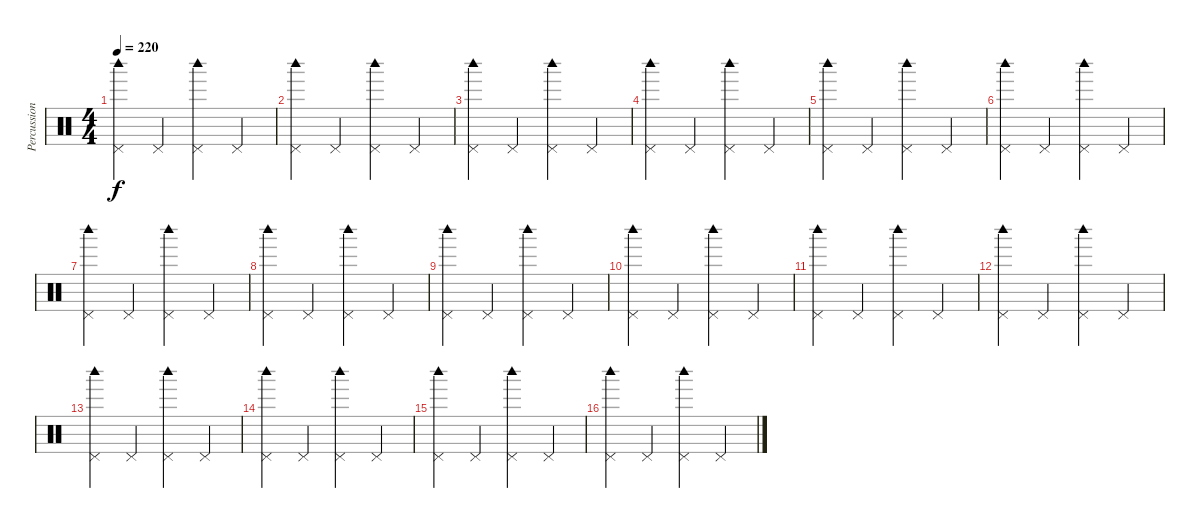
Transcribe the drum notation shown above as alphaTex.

\track ("Percussion" "Percussion") {instrument percussion}
\staff {score}
\articulation defaults
\ts (4 4)
\tempo 220
\clef neutral
\ks c
("Pedal Hi-Hat (hit)" "Woodblock high (hit)").4{dy f} "Pedal Hi-Hat (hit)".4 ("Pedal Hi-Hat (hit)" "Woodblock high (hit)").4 "Pedal Hi-Hat (hit)".4 |
("Pedal Hi-Hat (hit)" "Woodblock high (hit)").4 "Pedal Hi-Hat (hit)".4 ("Pedal Hi-Hat (hit)" "Woodblock high (hit)").4 "Pedal Hi-Hat (hit)".4 |
("Pedal Hi-Hat (hit)" "Woodblock high (hit)").4 "Pedal Hi-Hat (hit)".4 ("Pedal Hi-Hat (hit)" "Woodblock high (hit)").4 "Pedal Hi-Hat (hit)".4 |
("Pedal Hi-Hat (hit)" "Woodblock high (hit)").4 "Pedal Hi-Hat (hit)".4 ("Pedal Hi-Hat (hit)" "Woodblock high (hit)").4 "Pedal Hi-Hat (hit)".4 |
("Pedal Hi-Hat (hit)" "Woodblock high (hit)").4 "Pedal Hi-Hat (hit)".4 ("Pedal Hi-Hat (hit)" "Woodblock high (hit)").4 "Pedal Hi-Hat (hit)".4 |
("Pedal Hi-Hat (hit)" "Woodblock high (hit)").4 "Pedal Hi-Hat (hit)".4 ("Pedal Hi-Hat (hit)" "Woodblock high (hit)").4 "Pedal Hi-Hat (hit)".4 |
("Pedal Hi-Hat (hit)" "Woodblock high (hit)").4 "Pedal Hi-Hat (hit)".4 ("Pedal Hi-Hat (hit)" "Woodblock high (hit)").4 "Pedal Hi-Hat (hit)".4 |
("Pedal Hi-Hat (hit)" "Woodblock high (hit)").4 "Pedal Hi-Hat (hit)".4 ("Pedal Hi-Hat (hit)" "Woodblock high (hit)").4 "Pedal Hi-Hat (hit)".4 |
("Pedal Hi-Hat (hit)" "Woodblock high (hit)").4 "Pedal Hi-Hat (hit)".4 ("Pedal Hi-Hat (hit)" "Woodblock high (hit)").4 "Pedal Hi-Hat (hit)".4 |
("Pedal Hi-Hat (hit)" "Woodblock high (hit)").4 "Pedal Hi-Hat (hit)".4 ("Pedal Hi-Hat (hit)" "Woodblock high (hit)").4 "Pedal Hi-Hat (hit)".4 |
("Pedal Hi-Hat (hit)" "Woodblock high (hit)").4 "Pedal Hi-Hat (hit)".4 ("Pedal Hi-Hat (hit)" "Woodblock high (hit)").4 "Pedal Hi-Hat (hit)".4 |
("Pedal Hi-Hat (hit)" "Woodblock high (hit)").4 "Pedal Hi-Hat (hit)".4 ("Pedal Hi-Hat (hit)" "Woodblock high (hit)").4 "Pedal Hi-Hat (hit)".4 |
("Pedal Hi-Hat (hit)" "Woodblock high (hit)").4 "Pedal Hi-Hat (hit)".4 ("Pedal Hi-Hat (hit)" "Woodblock high (hit)").4 "Pedal Hi-Hat (hit)".4 |
("Pedal Hi-Hat (hit)" "Woodblock high (hit)").4 "Pedal Hi-Hat (hit)".4 ("Pedal Hi-Hat (hit)" "Woodblock high (hit)").4 "Pedal Hi-Hat (hit)".4 |
("Pedal Hi-Hat (hit)" "Woodblock high (hit)").4 "Pedal Hi-Hat (hit)".4 ("Pedal Hi-Hat (hit)" "Woodblock high (hit)").4 "Pedal Hi-Hat (hit)".4 |
("Pedal Hi-Hat (hit)" "Woodblock high (hit)").4 "Pedal Hi-Hat (hit)".4 ("Pedal Hi-Hat (hit)" "Woodblock high (hit)").4 "Pedal Hi-Hat (hit)".4
